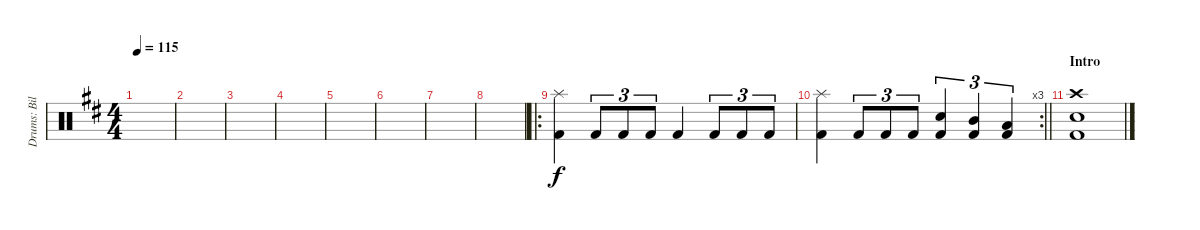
\track ("Drums: Bill" "Drums: Bil") {instrument percussion}
\staff {score}
\articulation defaults
\ts (4 4)
\tempo 115
\clef neutral
\ks d
|
|
|
|
|
|
|
|
\ro
("Splash (hit)" "Kick (hit) 2").4 "Kick (hit) 2".8{tu (3 2)} "Kick (hit) 2".8{tu (3 2)} "Kick (hit) 2".8{tu (3 2)} "Kick (hit) 2".4 "Kick (hit) 2".8{tu (3 2)} "Kick (hit) 2".8{tu (3 2)} "Kick (hit) 2".8{tu (3 2)} |
\rc 3
\barLineRight lightlight
("Splash (hit)" "Kick (hit) 2").4 "Kick (hit) 2".8{tu (3 2)} "Kick (hit) 2".8{tu (3 2)} "Kick (hit) 2".8{tu (3 2)} ("Snare (hit) 2" "Kick (hit) 2").4{tu (3 2)} ("Mid Tom (hit)" "Kick (hit) 2").4{tu (3 2)} ("Low Tom (hit)" "Kick (hit) 2").4{tu (3 2)} |
\section ("" "Intro")
("Crash high (hit)" "Snare (hit) 2" "Kick (hit) 2").1
